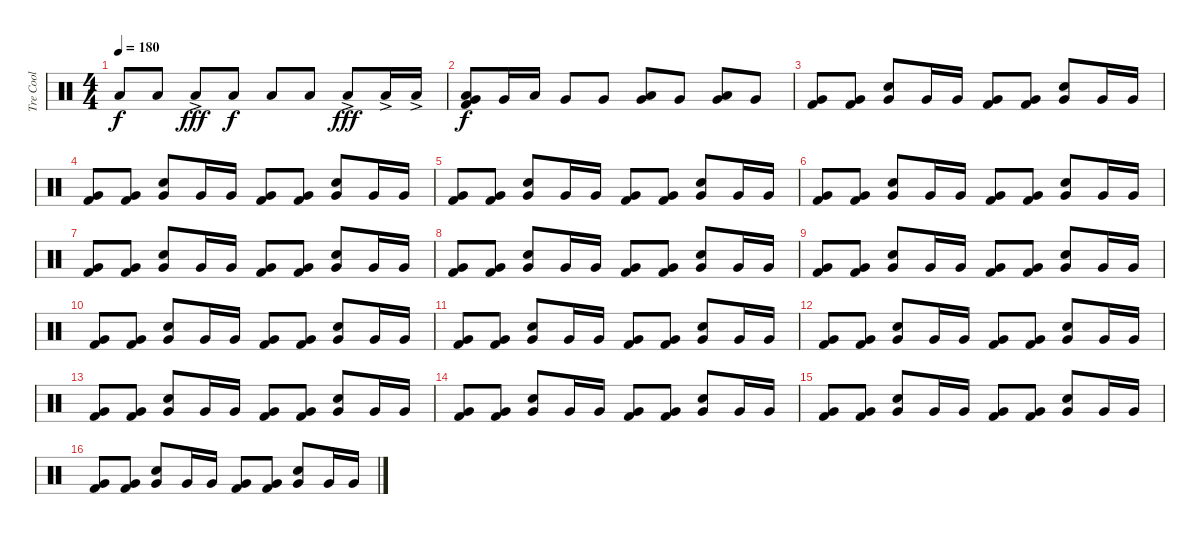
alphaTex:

\track ("Tre Cool" "Tre Cool") {instrument percussion}
\staff {score}
\articulation defaults
\ts (4 4)
\tempo 180
\clef neutral
\ks c "Low Tom (hit)".8{dy f} "Low Tom (hit)".8 "Low Tom (hit)"{ac}.8{dy fff} "Low Tom (hit)".8{dy f} "Low Tom (hit)".8 "Low Tom (hit)".8 "Low Tom (hit)"{ac}.8{dy fff} "Low Tom (hit)"{ac}.16 "Low Tom (hit)"{ac}.16
|
("Low Tom (hit)" "Very Low Tom (hit)" "Kick (hit) 2").8{dy f} "Very Low Tom (hit)".16 "Low Tom (hit)".16 "Very Low Tom (hit)".8 "Very Low Tom (hit)".8 ("Low Tom (hit)" "Very Low Tom (hit)").8 "Very Low Tom (hit)".8 ("Low Tom (hit)" "Very Low Tom (hit)").8 "Very Low Tom (hit)".8 |
("Very Low Tom (hit)" "Kick (hit) 2").8 ("Very Low Tom (hit)" "Kick (hit) 2").8 ("Electric Snare (hit)" "Very Low Tom (hit)").8 "Very Low Tom (hit)".16 "Very Low Tom (hit)".16 ("Very Low Tom (hit)" "Kick (hit) 2").8 ("Very Low Tom (hit)" "Kick (hit) 2").8 ("Electric Snare (hit)" "Very Low Tom (hit)").8 "Very Low Tom (hit)".16 "Very Low Tom (hit)".16 |
("Very Low Tom (hit)" "Kick (hit) 2").8 ("Very Low Tom (hit)" "Kick (hit) 2").8 ("Electric Snare (hit)" "Very Low Tom (hit)").8 "Very Low Tom (hit)".16 "Very Low Tom (hit)".16 ("Very Low Tom (hit)" "Kick (hit) 2").8 ("Very Low Tom (hit)" "Kick (hit) 2").8 ("Electric Snare (hit)" "Very Low Tom (hit)").8 "Very Low Tom (hit)".16 "Very Low Tom (hit)".16 |
("Very Low Tom (hit)" "Kick (hit) 2").8 ("Very Low Tom (hit)" "Kick (hit) 2").8 ("Electric Snare (hit)" "Very Low Tom (hit)").8 "Very Low Tom (hit)".16 "Very Low Tom (hit)".16 ("Very Low Tom (hit)" "Kick (hit) 2").8 ("Very Low Tom (hit)" "Kick (hit) 2").8 ("Electric Snare (hit)" "Very Low Tom (hit)").8 "Very Low Tom (hit)".16 "Very Low Tom (hit)".16 |
("Very Low Tom (hit)" "Kick (hit) 2").8 ("Very Low Tom (hit)" "Kick (hit) 2").8 ("Electric Snare (hit)" "Very Low Tom (hit)").8 "Very Low Tom (hit)".16 "Very Low Tom (hit)".16 ("Very Low Tom (hit)" "Kick (hit) 2").8 ("Very Low Tom (hit)" "Kick (hit) 2").8 ("Electric Snare (hit)" "Very Low Tom (hit)").8 "Very Low Tom (hit)".16 "Very Low Tom (hit)".16 |
("Very Low Tom (hit)" "Kick (hit) 2").8 ("Very Low Tom (hit)" "Kick (hit) 2").8 ("Electric Snare (hit)" "Very Low Tom (hit)").8 "Very Low Tom (hit)".16 "Very Low Tom (hit)".16 ("Very Low Tom (hit)" "Kick (hit) 2").8 ("Very Low Tom (hit)" "Kick (hit) 2").8 ("Electric Snare (hit)" "Very Low Tom (hit)").8 "Very Low Tom (hit)".16 "Very Low Tom (hit)".16 |
("Very Low Tom (hit)" "Kick (hit) 2").8 ("Very Low Tom (hit)" "Kick (hit) 2").8 ("Electric Snare (hit)" "Very Low Tom (hit)").8 "Very Low Tom (hit)".16 "Very Low Tom (hit)".16 ("Very Low Tom (hit)" "Kick (hit) 2").8 ("Very Low Tom (hit)" "Kick (hit) 2").8 ("Electric Snare (hit)" "Very Low Tom (hit)").8 "Very Low Tom (hit)".16 "Very Low Tom (hit)".16 |
("Very Low Tom (hit)" "Kick (hit) 2").8 ("Very Low Tom (hit)" "Kick (hit) 2").8 ("Electric Snare (hit)" "Very Low Tom (hit)").8 "Very Low Tom (hit)".16 "Very Low Tom (hit)".16 ("Very Low Tom (hit)" "Kick (hit) 2").8 ("Very Low Tom (hit)" "Kick (hit) 2").8 ("Electric Snare (hit)" "Very Low Tom (hit)").8 "Very Low Tom (hit)".16 "Very Low Tom (hit)".16 |
("Very Low Tom (hit)" "Kick (hit) 2").8 ("Very Low Tom (hit)" "Kick (hit) 2").8 ("Electric Snare (hit)" "Very Low Tom (hit)").8 "Very Low Tom (hit)".16 "Very Low Tom (hit)".16 ("Very Low Tom (hit)" "Kick (hit) 2").8 ("Very Low Tom (hit)" "Kick (hit) 2").8 ("Electric Snare (hit)" "Very Low Tom (hit)").8 "Very Low Tom (hit)".16 "Very Low Tom (hit)".16 |
("Very Low Tom (hit)" "Kick (hit) 2").8 ("Very Low Tom (hit)" "Kick (hit) 2").8 ("Electric Snare (hit)" "Very Low Tom (hit)").8 "Very Low Tom (hit)".16 "Very Low Tom (hit)".16 ("Very Low Tom (hit)" "Kick (hit) 2").8 ("Very Low Tom (hit)" "Kick (hit) 2").8 ("Electric Snare (hit)" "Very Low Tom (hit)").8 "Very Low Tom (hit)".16 "Very Low Tom (hit)".16 |
("Very Low Tom (hit)" "Kick (hit) 2").8 ("Very Low Tom (hit)" "Kick (hit) 2").8 ("Electric Snare (hit)" "Very Low Tom (hit)").8 "Very Low Tom (hit)".16 "Very Low Tom (hit)".16 ("Very Low Tom (hit)" "Kick (hit) 2").8 ("Very Low Tom (hit)" "Kick (hit) 2").8 ("Electric Snare (hit)" "Very Low Tom (hit)").8 "Very Low Tom (hit)".16 "Very Low Tom (hit)".16 |
("Very Low Tom (hit)" "Kick (hit) 2").8 ("Very Low Tom (hit)" "Kick (hit) 2").8 ("Electric Snare (hit)" "Very Low Tom (hit)").8 "Very Low Tom (hit)".16 "Very Low Tom (hit)".16 ("Very Low Tom (hit)" "Kick (hit) 2").8 ("Very Low Tom (hit)" "Kick (hit) 2").8 ("Electric Snare (hit)" "Very Low Tom (hit)").8 "Very Low Tom (hit)".16 "Very Low Tom (hit)".16 |
("Very Low Tom (hit)" "Kick (hit) 2").8 ("Very Low Tom (hit)" "Kick (hit) 2").8 ("Electric Snare (hit)" "Very Low Tom (hit)").8 "Very Low Tom (hit)".16 "Very Low Tom (hit)".16 ("Very Low Tom (hit)" "Kick (hit) 2").8 ("Very Low Tom (hit)" "Kick (hit) 2").8 ("Electric Snare (hit)" "Very Low Tom (hit)").8 "Very Low Tom (hit)".16 "Very Low Tom (hit)".16 |
("Very Low Tom (hit)" "Kick (hit) 2").8 ("Very Low Tom (hit)" "Kick (hit) 2").8 ("Electric Snare (hit)" "Very Low Tom (hit)").8 "Very Low Tom (hit)".16 "Very Low Tom (hit)".16 ("Very Low Tom (hit)" "Kick (hit) 2").8 ("Very Low Tom (hit)" "Kick (hit) 2").8 ("Electric Snare (hit)" "Very Low Tom (hit)").8 "Very Low Tom (hit)".16 "Very Low Tom (hit)".16 |
("Very Low Tom (hit)" "Kick (hit) 2").8 ("Very Low Tom (hit)" "Kick (hit) 2").8 ("Electric Snare (hit)" "Very Low Tom (hit)").8 "Very Low Tom (hit)".16 "Very Low Tom (hit)".16 ("Very Low Tom (hit)" "Kick (hit) 2").8 ("Very Low Tom (hit)" "Kick (hit) 2").8 ("Electric Snare (hit)" "Very Low Tom (hit)").8 "Very Low Tom (hit)".16 "Very Low Tom (hit)".16
